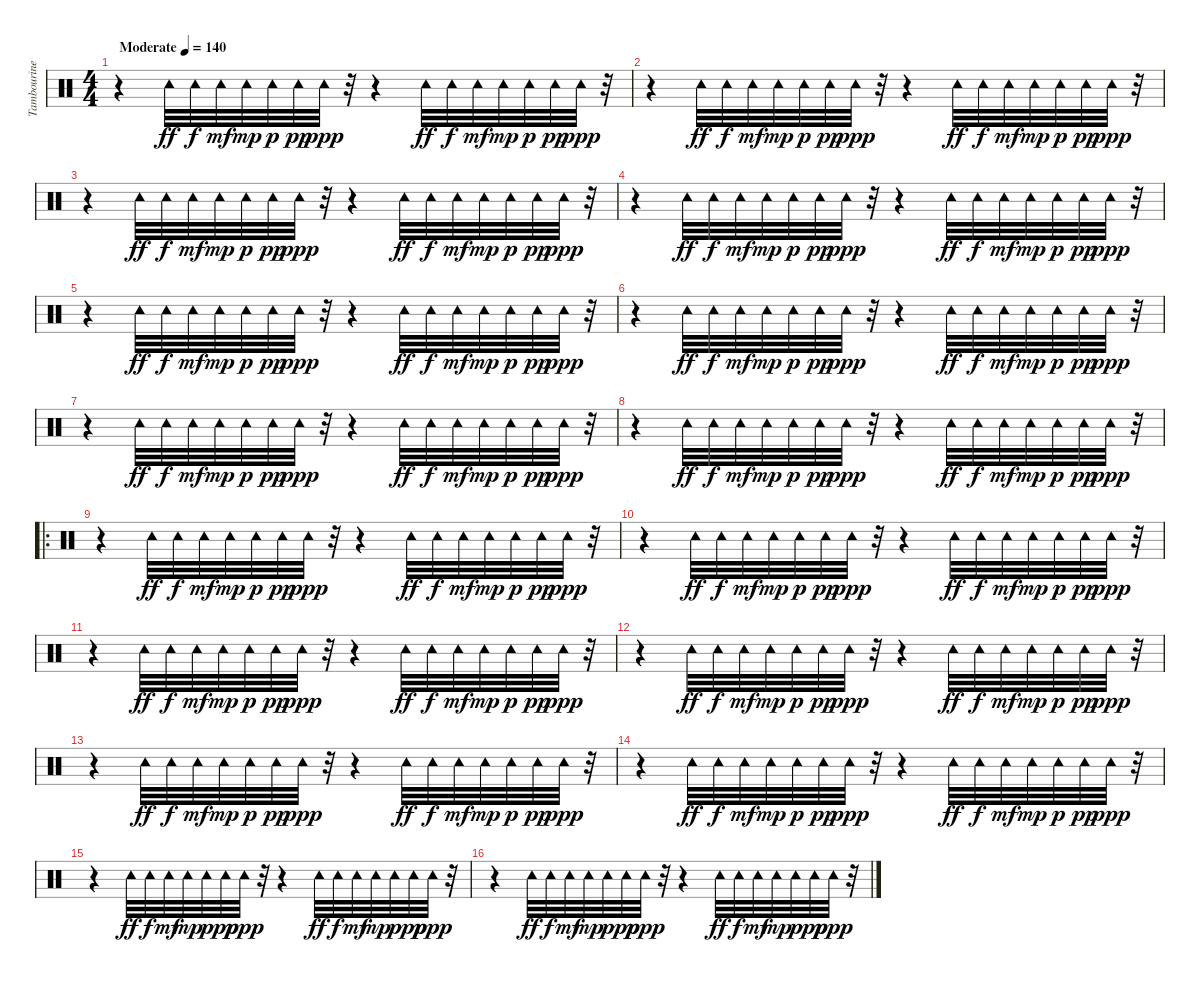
\track ("Tambourine" "Tambourine") {instrument percussion}
\staff {score}
\articulation defaults
\ts (4 4)
\tempo (140 "Moderate")
\clef neutral
\ks c
r.4{dy ff} "Tambourine (hit)".32 "Tambourine (hit)".32{dy f} "Tambourine (hit)".32{dy mf} "Tambourine (hit)".32{dy mp} "Tambourine (hit)".32{dy p} "Tambourine (hit)".32{dy pp} "Tambourine (hit)".32{dy ppp} r.32 r.4 "Tambourine (hit)".32{dy ff} "Tambourine (hit)".32{dy f} "Tambourine (hit)".32{dy mf} "Tambourine (hit)".32{dy mp} "Tambourine (hit)".32{dy p} "Tambourine (hit)".32{dy pp} "Tambourine (hit)".32{dy ppp} r.32 |
r.4 "Tambourine (hit)".32{dy ff} "Tambourine (hit)".32{dy f} "Tambourine (hit)".32{dy mf} "Tambourine (hit)".32{dy mp} "Tambourine (hit)".32{dy p} "Tambourine (hit)".32{dy pp} "Tambourine (hit)".32{dy ppp} r.32 r.4 "Tambourine (hit)".32{dy ff} "Tambourine (hit)".32{dy f} "Tambourine (hit)".32{dy mf} "Tambourine (hit)".32{dy mp} "Tambourine (hit)".32{dy p} "Tambourine (hit)".32{dy pp} "Tambourine (hit)".32{dy ppp} r.32 |
r.4 "Tambourine (hit)".32{dy ff} "Tambourine (hit)".32{dy f} "Tambourine (hit)".32{dy mf} "Tambourine (hit)".32{dy mp} "Tambourine (hit)".32{dy p} "Tambourine (hit)".32{dy pp} "Tambourine (hit)".32{dy ppp} r.32 r.4 "Tambourine (hit)".32{dy ff} "Tambourine (hit)".32{dy f} "Tambourine (hit)".32{dy mf} "Tambourine (hit)".32{dy mp} "Tambourine (hit)".32{dy p} "Tambourine (hit)".32{dy pp} "Tambourine (hit)".32{dy ppp} r.32 |
r.4 "Tambourine (hit)".32{dy ff} "Tambourine (hit)".32{dy f} "Tambourine (hit)".32{dy mf} "Tambourine (hit)".32{dy mp} "Tambourine (hit)".32{dy p} "Tambourine (hit)".32{dy pp} "Tambourine (hit)".32{dy ppp} r.32 r.4 "Tambourine (hit)".32{dy ff} "Tambourine (hit)".32{dy f} "Tambourine (hit)".32{dy mf} "Tambourine (hit)".32{dy mp} "Tambourine (hit)".32{dy p} "Tambourine (hit)".32{dy pp} "Tambourine (hit)".32{dy ppp} r.32 |
r.4 "Tambourine (hit)".32{dy ff} "Tambourine (hit)".32{dy f} "Tambourine (hit)".32{dy mf} "Tambourine (hit)".32{dy mp} "Tambourine (hit)".32{dy p} "Tambourine (hit)".32{dy pp} "Tambourine (hit)".32{dy ppp} r.32 r.4 "Tambourine (hit)".32{dy ff} "Tambourine (hit)".32{dy f} "Tambourine (hit)".32{dy mf} "Tambourine (hit)".32{dy mp} "Tambourine (hit)".32{dy p} "Tambourine (hit)".32{dy pp} "Tambourine (hit)".32{dy ppp} r.32 |
r.4 "Tambourine (hit)".32{dy ff} "Tambourine (hit)".32{dy f} "Tambourine (hit)".32{dy mf} "Tambourine (hit)".32{dy mp} "Tambourine (hit)".32{dy p} "Tambourine (hit)".32{dy pp} "Tambourine (hit)".32{dy ppp} r.32 r.4 "Tambourine (hit)".32{dy ff} "Tambourine (hit)".32{dy f} "Tambourine (hit)".32{dy mf} "Tambourine (hit)".32{dy mp} "Tambourine (hit)".32{dy p} "Tambourine (hit)".32{dy pp} "Tambourine (hit)".32{dy ppp} r.32 |
r.4 "Tambourine (hit)".32{dy ff} "Tambourine (hit)".32{dy f} "Tambourine (hit)".32{dy mf} "Tambourine (hit)".32{dy mp} "Tambourine (hit)".32{dy p} "Tambourine (hit)".32{dy pp} "Tambourine (hit)".32{dy ppp} r.32 r.4 "Tambourine (hit)".32{dy ff} "Tambourine (hit)".32{dy f} "Tambourine (hit)".32{dy mf} "Tambourine (hit)".32{dy mp} "Tambourine (hit)".32{dy p} "Tambourine (hit)".32{dy pp} "Tambourine (hit)".32{dy ppp} r.32 |
r.4 "Tambourine (hit)".32{dy ff} "Tambourine (hit)".32{dy f} "Tambourine (hit)".32{dy mf} "Tambourine (hit)".32{dy mp} "Tambourine (hit)".32{dy p} "Tambourine (hit)".32{dy pp} "Tambourine (hit)".32{dy ppp} r.32 r.4 "Tambourine (hit)".32{dy ff} "Tambourine (hit)".32{dy f} "Tambourine (hit)".32{dy mf} "Tambourine (hit)".32{dy mp} "Tambourine (hit)".32{dy p} "Tambourine (hit)".32{dy pp} "Tambourine (hit)".32{dy ppp} r.32 |
\ro
r.4 "Tambourine (hit)".32{dy ff} "Tambourine (hit)".32{dy f} "Tambourine (hit)".32{dy mf} "Tambourine (hit)".32{dy mp} "Tambourine (hit)".32{dy p} "Tambourine (hit)".32{dy pp} "Tambourine (hit)".32{dy ppp} r.32 r.4 "Tambourine (hit)".32{dy ff} "Tambourine (hit)".32{dy f} "Tambourine (hit)".32{dy mf} "Tambourine (hit)".32{dy mp} "Tambourine (hit)".32{dy p} "Tambourine (hit)".32{dy pp} "Tambourine (hit)".32{dy ppp} r.32 |
r.4 "Tambourine (hit)".32{dy ff} "Tambourine (hit)".32{dy f} "Tambourine (hit)".32{dy mf} "Tambourine (hit)".32{dy mp} "Tambourine (hit)".32{dy p} "Tambourine (hit)".32{dy pp} "Tambourine (hit)".32{dy ppp} r.32 r.4 "Tambourine (hit)".32{dy ff} "Tambourine (hit)".32{dy f} "Tambourine (hit)".32{dy mf} "Tambourine (hit)".32{dy mp} "Tambourine (hit)".32{dy p} "Tambourine (hit)".32{dy pp} "Tambourine (hit)".32{dy ppp} r.32 |
r.4 "Tambourine (hit)".32{dy ff} "Tambourine (hit)".32{dy f} "Tambourine (hit)".32{dy mf} "Tambourine (hit)".32{dy mp} "Tambourine (hit)".32{dy p} "Tambourine (hit)".32{dy pp} "Tambourine (hit)".32{dy ppp} r.32 r.4 "Tambourine (hit)".32{dy ff} "Tambourine (hit)".32{dy f} "Tambourine (hit)".32{dy mf} "Tambourine (hit)".32{dy mp} "Tambourine (hit)".32{dy p} "Tambourine (hit)".32{dy pp} "Tambourine (hit)".32{dy ppp} r.32 |
r.4 "Tambourine (hit)".32{dy ff} "Tambourine (hit)".32{dy f} "Tambourine (hit)".32{dy mf} "Tambourine (hit)".32{dy mp} "Tambourine (hit)".32{dy p} "Tambourine (hit)".32{dy pp} "Tambourine (hit)".32{dy ppp} r.32 r.4 "Tambourine (hit)".32{dy ff} "Tambourine (hit)".32{dy f} "Tambourine (hit)".32{dy mf} "Tambourine (hit)".32{dy mp} "Tambourine (hit)".32{dy p} "Tambourine (hit)".32{dy pp} "Tambourine (hit)".32{dy ppp} r.32 |
r.4 "Tambourine (hit)".32{dy ff} "Tambourine (hit)".32{dy f} "Tambourine (hit)".32{dy mf} "Tambourine (hit)".32{dy mp} "Tambourine (hit)".32{dy p} "Tambourine (hit)".32{dy pp} "Tambourine (hit)".32{dy ppp} r.32 r.4 "Tambourine (hit)".32{dy ff} "Tambourine (hit)".32{dy f} "Tambourine (hit)".32{dy mf} "Tambourine (hit)".32{dy mp} "Tambourine (hit)".32{dy p} "Tambourine (hit)".32{dy pp} "Tambourine (hit)".32{dy ppp} r.32 |
r.4 "Tambourine (hit)".32{dy ff} "Tambourine (hit)".32{dy f} "Tambourine (hit)".32{dy mf} "Tambourine (hit)".32{dy mp} "Tambourine (hit)".32{dy p} "Tambourine (hit)".32{dy pp} "Tambourine (hit)".32{dy ppp} r.32 r.4 "Tambourine (hit)".32{dy ff} "Tambourine (hit)".32{dy f} "Tambourine (hit)".32{dy mf} "Tambourine (hit)".32{dy mp} "Tambourine (hit)".32{dy p} "Tambourine (hit)".32{dy pp} "Tambourine (hit)".32{dy ppp} r.32 |
r.4 "Tambourine (hit)".32{dy ff} "Tambourine (hit)".32{dy f} "Tambourine (hit)".32{dy mf} "Tambourine (hit)".32{dy mp} "Tambourine (hit)".32{dy p} "Tambourine (hit)".32{dy pp} "Tambourine (hit)".32{dy ppp} r.32 r.4 "Tambourine (hit)".32{dy ff} "Tambourine (hit)".32{dy f} "Tambourine (hit)".32{dy mf} "Tambourine (hit)".32{dy mp} "Tambourine (hit)".32{dy p} "Tambourine (hit)".32{dy pp} "Tambourine (hit)".32{dy ppp} r.32 |
r.4 "Tambourine (hit)".32{dy ff} "Tambourine (hit)".32{dy f} "Tambourine (hit)".32{dy mf} "Tambourine (hit)".32{dy mp} "Tambourine (hit)".32{dy p} "Tambourine (hit)".32{dy pp} "Tambourine (hit)".32{dy ppp} r.32 r.4 "Tambourine (hit)".32{dy ff} "Tambourine (hit)".32{dy f} "Tambourine (hit)".32{dy mf} "Tambourine (hit)".32{dy mp} "Tambourine (hit)".32{dy p} "Tambourine (hit)".32{dy pp} "Tambourine (hit)".32{dy ppp} r.32
